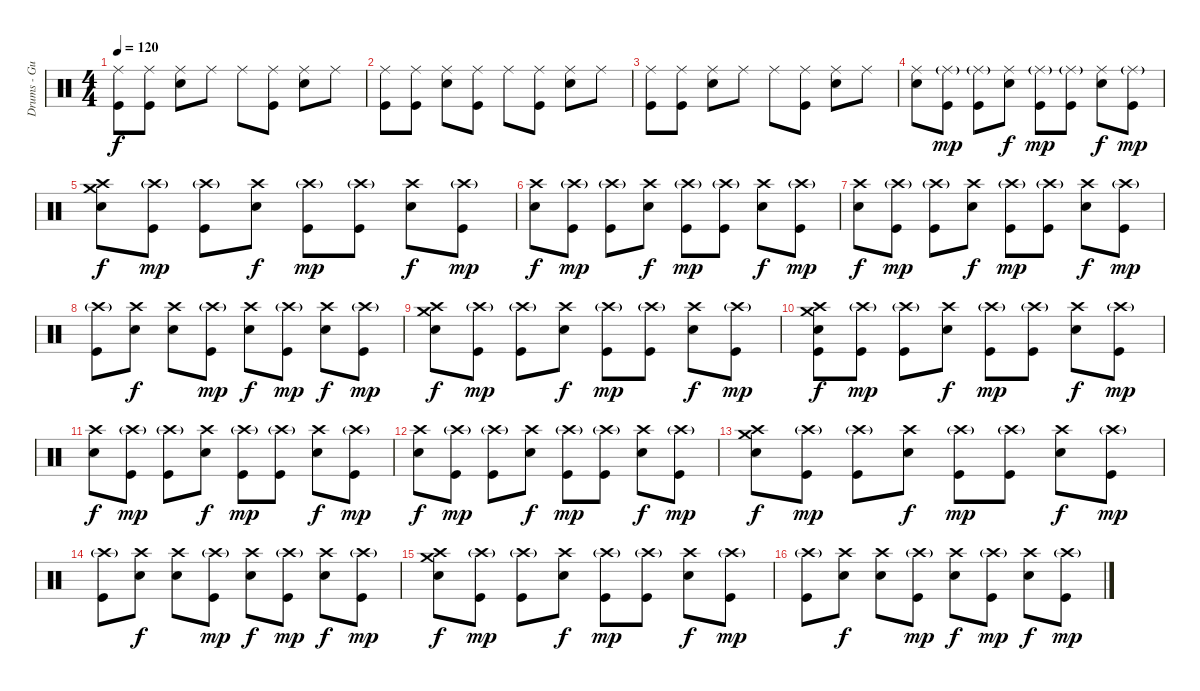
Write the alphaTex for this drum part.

\track ("Drums - Gustav" "Drums - Gu") {instrument percussion}
\staff {score}
\articulation defaults
\ts (4 4)
\tempo 120
\clef neutral
\ks c
("Kick (hit)" "Ride (middle)").8{dy f} ("Kick (hit)" "Ride (middle)").8 ("Ride (middle)" "Snare (hit) 2").8 "Ride (middle)".8 "Ride (middle)".8 ("Kick (hit)" "Ride (middle)").8 ("Ride (middle)" "Snare (hit) 2").8 "Ride (middle)".8 |
("Kick (hit)" "Ride (middle)").8 ("Kick (hit)" "Ride (middle)").8 ("Ride (middle)" "Snare (hit) 2").8 ("Kick (hit)" "Ride (middle)").8 "Ride (middle)".8 ("Kick (hit)" "Ride (middle)").8 ("Ride (middle)" "Snare (hit) 2").8 "Ride (middle)".8 |
("Kick (hit)" "Ride (middle)").8 ("Kick (hit)" "Ride (middle)").8 ("Ride (middle)" "Snare (hit) 2").8 "Ride (middle)".8 "Ride (middle)".8 ("Kick (hit)" "Ride (middle)").8 ("Ride (middle)" "Snare (hit) 2").8 "Ride (middle)".8 |
("Ride (middle)" "Snare (hit) 2").8 ("Kick (hit)" "Ride (middle)"{g}).8{dy mp} ("Kick (hit)" "Ride (middle)"{g}).8 ("Ride (middle)" "Snare (hit) 2").8{dy f} ("Kick (hit)" "Ride (middle)"{g}).8{dy mp} ("Kick (hit)" "Ride (middle)"{g}).8 ("Ride (middle)" "Snare (hit) 2").8{dy f} ("Kick (hit)" "Ride (middle)"{g}).8{dy mp} |
("Snare (hit) 2" "Crash high (hit)" "Crash medium (hit)").8{dy f} ("Kick (hit)" "Crash high (hit)"{g}).8{dy mp} ("Kick (hit)" "Crash high (hit)"{g}).8 ("Crash high (hit)" "Snare (hit) 2").8{dy f} ("Kick (hit)" "Crash high (hit)"{g}).8{dy mp} ("Kick (hit)" "Crash high (hit)"{g}).8 ("Crash high (hit)" "Snare (hit) 2").8{dy f} ("Kick (hit)" "Crash high (hit)"{g}).8{dy mp} |
("Crash high (hit)" "Snare (hit) 2").8{dy f} ("Kick (hit)" "Crash high (hit)"{g}).8{dy mp} ("Kick (hit)" "Crash high (hit)"{g}).8 ("Crash high (hit)" "Snare (hit) 2").8{dy f} ("Kick (hit)" "Crash high (hit)"{g}).8{dy mp} ("Kick (hit)" "Crash high (hit)"{g}).8 ("Crash high (hit)" "Snare (hit) 2").8{dy f} ("Kick (hit)" "Crash high (hit)"{g}).8{dy mp} |
("Crash high (hit)" "Snare (hit) 2").8{dy f} ("Kick (hit)" "Crash high (hit)"{g}).8{dy mp} ("Kick (hit)" "Crash high (hit)"{g}).8 ("Crash high (hit)" "Snare (hit) 2").8{dy f} ("Kick (hit)" "Crash high (hit)"{g}).8{dy mp} ("Kick (hit)" "Crash high (hit)"{g}).8 ("Crash high (hit)" "Snare (hit) 2").8{dy f} ("Kick (hit)" "Crash high (hit)"{g}).8{dy mp} |
("Kick (hit)" "Crash high (hit)"{g}).8 ("Crash high (hit)" "Snare (hit) 2").8{dy f} ("Crash high (hit)" "Snare (hit) 2").8 ("Kick (hit)" "Crash high (hit)"{g}).8{dy mp} ("Crash high (hit)" "Snare (hit) 2").8{dy f} ("Kick (hit)" "Crash high (hit)"{g}).8{dy mp} ("Crash high (hit)" "Snare (hit) 2").8{dy f} ("Kick (hit)" "Crash high (hit)"{g}).8{dy mp} |
("Snare (hit) 2" "Crash high (hit)" "Crash medium (hit)").8{dy f} ("Kick (hit)" "Crash high (hit)"{g}).8{dy mp} ("Kick (hit)" "Crash high (hit)"{g}).8 ("Crash high (hit)" "Snare (hit) 2").8{dy f} ("Kick (hit)" "Crash high (hit)"{g}).8{dy mp} ("Kick (hit)" "Crash high (hit)"{g}).8 ("Crash high (hit)" "Snare (hit) 2").8{dy f} ("Kick (hit)" "Crash high (hit)"{g}).8{dy mp} |
("Kick (hit)" "Snare (hit) 2" "Crash high (hit)" "Crash medium (hit)").8{dy f} ("Kick (hit)" "Crash high (hit)"{g}).8{dy mp} ("Kick (hit)" "Crash high (hit)"{g}).8 ("Crash high (hit)" "Snare (hit) 2").8{dy f} ("Kick (hit)" "Crash high (hit)"{g}).8{dy mp} ("Kick (hit)" "Crash high (hit)"{g}).8 ("Crash high (hit)" "Snare (hit) 2").8{dy f} ("Kick (hit)" "Crash high (hit)"{g}).8{dy mp} |
("Crash high (hit)" "Snare (hit) 2").8{dy f} ("Kick (hit)" "Crash high (hit)"{g}).8{dy mp} ("Kick (hit)" "Crash high (hit)"{g}).8 ("Crash high (hit)" "Snare (hit) 2").8{dy f} ("Kick (hit)" "Crash high (hit)"{g}).8{dy mp} ("Kick (hit)" "Crash high (hit)"{g}).8 ("Crash high (hit)" "Snare (hit) 2").8{dy f} ("Kick (hit)" "Crash high (hit)"{g}).8{dy mp} |
("Crash high (hit)" "Snare (hit) 2").8{dy f} ("Kick (hit)" "Crash high (hit)"{g}).8{dy mp} ("Kick (hit)" "Crash high (hit)"{g}).8 ("Crash high (hit)" "Snare (hit) 2").8{dy f} ("Kick (hit)" "Crash high (hit)"{g}).8{dy mp} ("Kick (hit)" "Crash high (hit)"{g}).8 ("Crash high (hit)" "Snare (hit) 2").8{dy f} ("Kick (hit)" "Crash high (hit)"{g}).8{dy mp} |
("Snare (hit) 2" "Crash high (hit)" "Crash medium (hit)").8{dy f} ("Kick (hit)" "Crash high (hit)"{g}).8{dy mp} ("Kick (hit)" "Crash high (hit)"{g}).8 ("Crash high (hit)" "Snare (hit) 2").8{dy f} ("Kick (hit)" "Crash high (hit)"{g}).8{dy mp} ("Kick (hit)" "Crash high (hit)"{g}).8 ("Crash high (hit)" "Snare (hit) 2").8{dy f} ("Kick (hit)" "Crash high (hit)"{g}).8{dy mp} |
("Kick (hit)" "Crash high (hit)"{g}).8 ("Crash high (hit)" "Snare (hit) 2").8{dy f} ("Crash high (hit)" "Snare (hit) 2").8 ("Kick (hit)" "Crash high (hit)"{g}).8{dy mp} ("Crash high (hit)" "Snare (hit) 2").8{dy f} ("Kick (hit)" "Crash high (hit)"{g}).8{dy mp} ("Crash high (hit)" "Snare (hit) 2").8{dy f} ("Kick (hit)" "Crash high (hit)"{g}).8{dy mp} |
("Snare (hit) 2" "Crash high (hit)" "Crash medium (hit)").8{dy f} ("Kick (hit)" "Crash high (hit)"{g}).8{dy mp} ("Kick (hit)" "Crash high (hit)"{g}).8 ("Crash high (hit)" "Snare (hit) 2").8{dy f} ("Kick (hit)" "Crash high (hit)"{g}).8{dy mp} ("Kick (hit)" "Crash high (hit)"{g}).8 ("Crash high (hit)" "Snare (hit) 2").8{dy f} ("Kick (hit)" "Crash high (hit)"{g}).8{dy mp} |
("Kick (hit)" "Crash high (hit)"{g}).8 ("Crash high (hit)" "Snare (hit) 2").8{dy f} ("Crash high (hit)" "Snare (hit) 2").8 ("Kick (hit)" "Crash high (hit)"{g}).8{dy mp} ("Crash high (hit)" "Snare (hit) 2").8{dy f} ("Kick (hit)" "Crash high (hit)"{g}).8{dy mp} ("Crash high (hit)" "Snare (hit) 2").8{dy f} ("Kick (hit)" "Crash high (hit)"{g}).8{dy mp}
